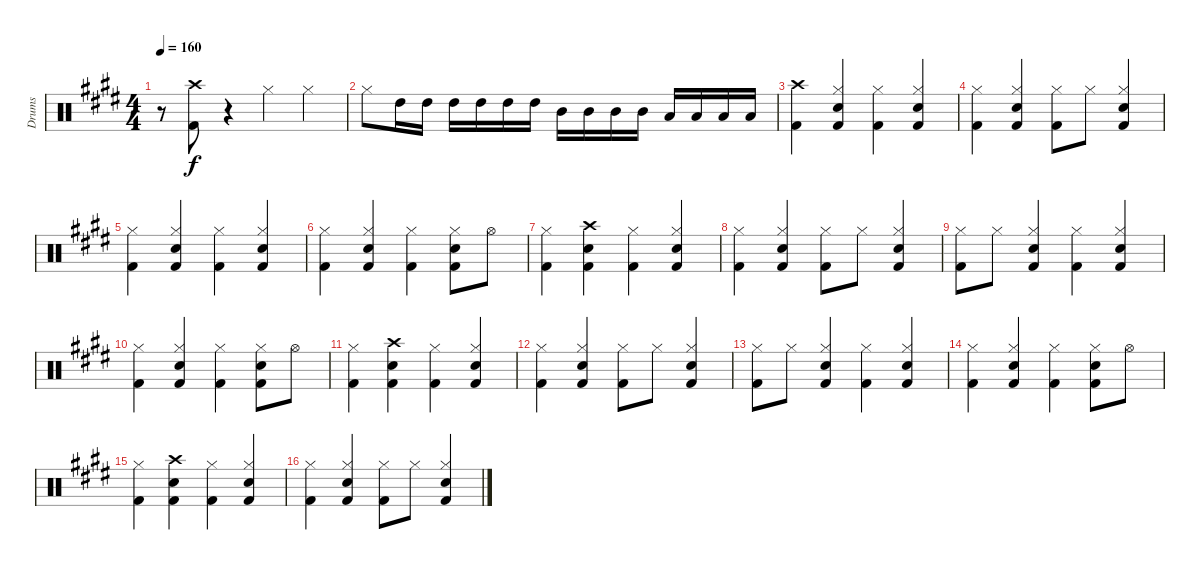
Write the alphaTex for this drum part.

\track ("Drums" "Drums") {instrument percussion}
\staff {score}
\articulation defaults
\ts (4 4)
\tempo 160
\clef neutral
\ks e
r.8{dy f} ("Crash high (hit)" "Kick (hit) 2").8 r.4 "Hi-Hat (closed)".4 "Hi-Hat (closed)".4 |
"Hi-Hat (closed)".8 "High Tom (hit)".16 "High Tom (hit)".16 "High Tom (hit)".16 "High Tom (hit)".16 "High Tom (hit)".16 "High Tom (hit)".16 "Mid Tom (hit)".16 "Mid Tom (hit)".16 "Mid Tom (hit)".16 "Mid Tom (hit)".16 "Low Tom (hit)".16 "Low Tom (hit)".16 "Low Tom (hit)".16 "Low Tom (hit)".16 |
("Crash high (hit)" "Kick (hit) 2").4 ("Hi-Hat (closed)" "Electric Snare (hit)" "Kick (hit) 2").4 ("Hi-Hat (closed)" "Kick (hit) 2").4 ("Hi-Hat (closed)" "Electric Snare (hit)" "Kick (hit) 2").4 |
("Hi-Hat (closed)" "Kick (hit) 2").4 ("Hi-Hat (closed)" "Electric Snare (hit)" "Kick (hit) 2").4 ("Hi-Hat (closed)" "Kick (hit) 2").8 "Hi-Hat (closed)".8 ("Hi-Hat (closed)" "Electric Snare (hit)" "Kick (hit) 2").4 |
("Hi-Hat (closed)" "Kick (hit) 2").4 ("Hi-Hat (closed)" "Electric Snare (hit)" "Kick (hit) 2").4 ("Hi-Hat (closed)" "Kick (hit) 2").4 ("Hi-Hat (closed)" "Electric Snare (hit)" "Kick (hit) 2").4 |
("Hi-Hat (closed)" "Kick (hit) 2").4 ("Hi-Hat (closed)" "Electric Snare (hit)" "Kick (hit) 2").4 ("Hi-Hat (closed)" "Kick (hit) 2").4 ("Hi-Hat (closed)" "Electric Snare (hit)" "Kick (hit) 2").8 "Hi-Hat (open)".8 |
("Hi-Hat (closed)" "Kick (hit) 2").4 ("Crash high (hit)" "Electric Snare (hit)" "Kick (hit) 2").4 ("Hi-Hat (closed)" "Kick (hit) 2").4 ("Hi-Hat (closed)" "Electric Snare (hit)" "Kick (hit) 2").4 |
("Hi-Hat (closed)" "Kick (hit) 2").4 ("Hi-Hat (closed)" "Electric Snare (hit)" "Kick (hit) 2").4 ("Hi-Hat (closed)" "Kick (hit) 2").8 "Hi-Hat (closed)".8 ("Hi-Hat (closed)" "Electric Snare (hit)" "Kick (hit) 2").4 |
("Hi-Hat (closed)" "Kick (hit) 2").8 "Hi-Hat (closed)".8 ("Hi-Hat (closed)" "Electric Snare (hit)" "Kick (hit) 2").4 ("Hi-Hat (closed)" "Kick (hit) 2").4 ("Hi-Hat (closed)" "Electric Snare (hit)" "Kick (hit) 2").4 |
("Hi-Hat (closed)" "Kick (hit) 2").4 ("Hi-Hat (closed)" "Electric Snare (hit)" "Kick (hit) 2").4 ("Hi-Hat (closed)" "Kick (hit) 2").4 ("Hi-Hat (closed)" "Electric Snare (hit)" "Kick (hit) 2").8 "Hi-Hat (open)".8 |
("Hi-Hat (closed)" "Kick (hit) 2").4 ("Crash high (hit)" "Electric Snare (hit)" "Kick (hit) 2").4 ("Hi-Hat (closed)" "Kick (hit) 2").4 ("Hi-Hat (closed)" "Electric Snare (hit)" "Kick (hit) 2").4 |
("Hi-Hat (closed)" "Kick (hit) 2").4 ("Hi-Hat (closed)" "Electric Snare (hit)" "Kick (hit) 2").4 ("Hi-Hat (closed)" "Kick (hit) 2").8 "Hi-Hat (closed)".8 ("Hi-Hat (closed)" "Electric Snare (hit)" "Kick (hit) 2").4 |
("Hi-Hat (closed)" "Kick (hit) 2").8 "Hi-Hat (closed)".8 ("Hi-Hat (closed)" "Electric Snare (hit)" "Kick (hit) 2").4 ("Hi-Hat (closed)" "Kick (hit) 2").4 ("Hi-Hat (closed)" "Electric Snare (hit)" "Kick (hit) 2").4 |
("Hi-Hat (closed)" "Kick (hit) 2").4 ("Hi-Hat (closed)" "Electric Snare (hit)" "Kick (hit) 2").4 ("Hi-Hat (closed)" "Kick (hit) 2").4 ("Hi-Hat (closed)" "Electric Snare (hit)" "Kick (hit) 2").8 "Hi-Hat (open)".8 |
("Hi-Hat (closed)" "Kick (hit) 2").4 ("Crash high (hit)" "Electric Snare (hit)" "Kick (hit) 2").4 ("Hi-Hat (closed)" "Kick (hit) 2").4 ("Hi-Hat (closed)" "Electric Snare (hit)" "Kick (hit) 2").4 |
("Hi-Hat (closed)" "Kick (hit) 2").4 ("Hi-Hat (closed)" "Electric Snare (hit)" "Kick (hit) 2").4 ("Hi-Hat (closed)" "Kick (hit) 2").8 "Hi-Hat (closed)".8 ("Hi-Hat (closed)" "Electric Snare (hit)" "Kick (hit) 2").4
